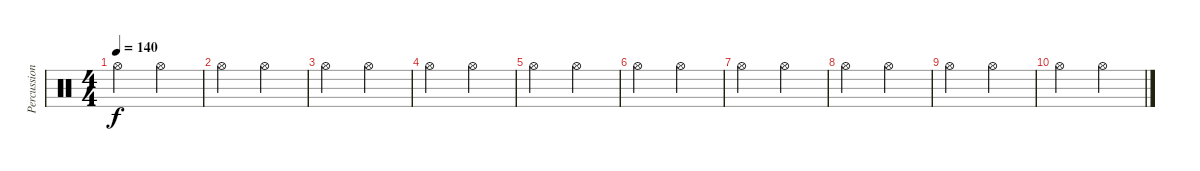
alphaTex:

\track ("Percussions" "Percussion") {instrument percussion}
\staff {score}
\articulation defaults
\ts (4 4)
\tempo 140
\clef neutral
\ks c "Hi-Hat (open)".2{dy f} "Hi-Hat (open)".2
|
"Hi-Hat (open)".2 "Hi-Hat (open)".2 |
"Hi-Hat (open)".2 "Hi-Hat (open)".2 |
"Hi-Hat (open)".2 "Hi-Hat (open)".2 |
"Hi-Hat (open)".2 "Hi-Hat (open)".2 |
"Hi-Hat (open)".2 "Hi-Hat (open)".2 |
"Hi-Hat (open)".2 "Hi-Hat (open)".2 |
"Hi-Hat (open)".2 "Hi-Hat (open)".2 |
"Hi-Hat (open)".2 "Hi-Hat (open)".2 |
"Hi-Hat (open)".2 "Hi-Hat (open)".2
